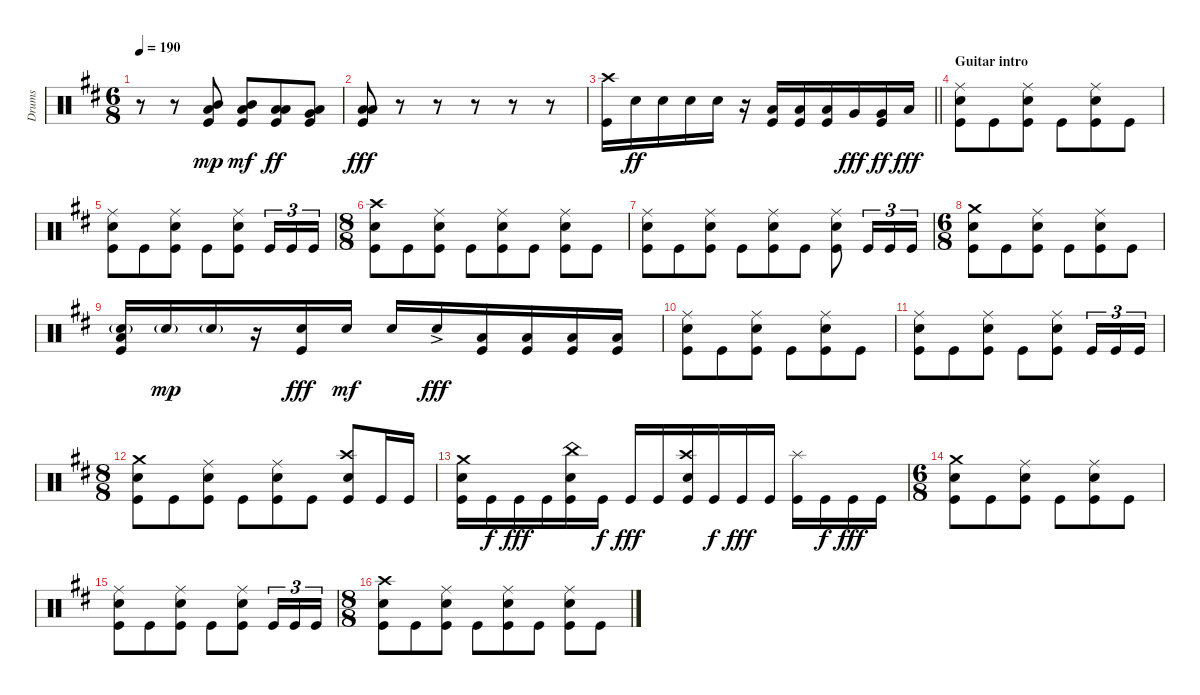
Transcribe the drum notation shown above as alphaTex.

\track ("Drums" "Drums") {instrument percussion}
\staff {score}
\articulation defaults
\ts (6 8)
\tempo 190
\clef neutral
\ks bminor
r.8{dy fff} r.8 ("Mid Tom (hit)" "Low Floor Tom (hit)" "Kick (hit)").8{dy mp} ("Mid Tom (hit)" "Low Floor Tom (hit)" "Kick (hit)").8{dy mf} ("Low Tom (hit)" "Low Floor Tom (hit)" "Kick (hit)").8{dy ff} ("Very Low Tom (hit)" "Low Floor Tom (hit)" "Kick (hit)").8 |
("Low Tom (hit)" "Low Floor Tom (hit)" "Kick (hit)").8{dy fff} r.8 r.8 r.8 r.8 r.8 |
\barLineRight lightlight
("Crash high (hit)" "Kick (hit)").16 "Snare (hit) 2".16{dy ff} "Snare (hit) 2".16 "Snare (hit) 2".16 "Snare (hit) 2".16 r.16 ("Low Tom (hit)" "Kick (hit)").16 ("Low Tom (hit)" "Kick (hit)").16 ("Low Tom (hit)" "Kick (hit)").16 "Very Low Tom (hit)".16{dy fff} ("Very Low Tom (hit)" "Kick (hit)").16{dy ff} "Low Floor Tom (hit)".16{dy fff} |
\section ("" "Guitar intro")
("Ride (middle)" "Snare (hit) 2" "Kick (hit)").8 "Kick (hit)".8 ("Ride (middle)" "Snare (hit) 2" "Kick (hit)").8 "Kick (hit)".8 ("Ride (middle)" "Snare (hit) 2" "Kick (hit)").8 "Kick (hit)".8 |
("Ride (middle)" "Snare (hit) 2" "Kick (hit)").8 "Kick (hit)".8 ("Ride (middle)" "Snare (hit) 2" "Kick (hit)").8 "Kick (hit)".8 ("Ride (middle)" "Snare (hit) 2" "Kick (hit)").8 "Kick (hit)".16{tu (3 2)} "Kick (hit)".16{tu (3 2)} "Kick (hit)".16{tu (3 2)} |
\ts (8 8)
("Crash high (hit)" "Snare (hit) 2" "Kick (hit)").8 "Kick (hit)".8 ("Ride (middle)" "Snare (hit) 2" "Kick (hit)").8 "Kick (hit)".8 ("Ride (middle)" "Snare (hit) 2" "Kick (hit)").8 "Kick (hit)".8 ("Ride (middle)" "Snare (hit) 2" "Kick (hit)").8 "Kick (hit)".8 |
("Ride (middle)" "Snare (hit) 2" "Kick (hit)").8 "Kick (hit)".8 ("Ride (middle)" "Snare (hit) 2" "Kick (hit)").8 "Kick (hit)".8 ("Ride (middle)" "Snare (hit) 2" "Kick (hit)").8 "Kick (hit)".8 ("Ride (middle)" "Snare (hit) 2" "Kick (hit)").8 "Kick (hit)".16{tu (3 2)} "Kick (hit)".16{tu (3 2)} "Kick (hit)".16{tu (3 2)} |
\ts (6 8)
("Crash medium (hit)" "Snare (hit) 2" "Kick (hit)").8 "Kick (hit)".8 ("Ride (middle)" "Snare (hit) 2" "Kick (hit)").8 "Kick (hit)".8 ("Ride (middle)" "Snare (hit) 2" "Kick (hit)").8 "Kick (hit)".8 |
("Low Floor Tom (hit)" "Snare (hit) 2"{g} "Kick (hit)").16 "Snare (hit) 2"{g}.16{dy mp} "Snare (hit) 2"{g}.16 r.16 ("Snare (hit) 2" "Kick (hit)").16{dy fff} "Snare (hit) 2".16{dy mf} "Snare (hit) 2".16 "Snare (hit) 2"{ac}.16{dy fff} ("Low Floor Tom (hit)" "Kick (hit)").16 ("Low Floor Tom (hit)" "Kick (hit)").16 ("Low Floor Tom (hit)" "Kick (hit)").16 ("Low Floor Tom (hit)" "Kick (hit)").16 |
("Ride (middle)" "Snare (hit) 2" "Kick (hit)").8 "Kick (hit)".8 ("Ride (middle)" "Snare (hit) 2" "Kick (hit)").8 "Kick (hit)".8 ("Ride (middle)" "Snare (hit) 2" "Kick (hit)").8 "Kick (hit)".8 |
("Ride (middle)" "Snare (hit) 2" "Kick (hit)").8 "Kick (hit)".8 ("Ride (middle)" "Snare (hit) 2" "Kick (hit)").8 "Kick (hit)".8 ("Ride (middle)" "Snare (hit) 2" "Kick (hit)").8 "Kick (hit)".16{tu (3 2)} "Kick (hit)".16{tu (3 2)} "Kick (hit)".16{tu (3 2)} |
\ts (8 8)
("Crash medium (hit)" "Snare (hit) 2" "Kick (hit)").8 "Kick (hit)".8 ("Ride (middle)" "Snare (hit) 2" "Kick (hit)").8 "Kick (hit)".8 ("Ride (middle)" "Snare (hit) 2" "Kick (hit)").8 "Kick (hit)".8 ("Crash high (hit)" "Snare (hit) 2" "Kick (hit)").8 "Kick (hit)".16 "Kick (hit)".16 |
("Crash medium (hit)" "Snare (hit) 2" "Kick (hit)").16 "Kick (hit)".16{dy f} "Kick (hit)".16{dy fff} "Kick (hit)".16 ("China (hit)" "Snare (hit) 2" "Kick (hit)").16 "Kick (hit)".16{dy f} "Kick (hit)".16{dy fff} "Kick (hit)".16 ("Crash high (hit)" "Snare (hit) 2" "Kick (hit)").16 "Kick (hit)".16{dy f} "Kick (hit)".16{dy fff} "Kick (hit)".16 ("Splash (hit)" "Kick (hit)").16 "Kick (hit)".16{dy f} "Kick (hit)".16{dy fff} "Kick (hit)".16 |
\ts (6 8)
("Crash medium (hit)" "Snare (hit) 2" "Kick (hit)").8 "Kick (hit)".8 ("Ride (middle)" "Snare (hit) 2" "Kick (hit)").8 "Kick (hit)".8 ("Ride (middle)" "Snare (hit) 2" "Kick (hit)").8 "Kick (hit)".8 |
("Ride (middle)" "Snare (hit) 2" "Kick (hit)").8 "Kick (hit)".8 ("Ride (middle)" "Snare (hit) 2" "Kick (hit)").8 "Kick (hit)".8 ("Ride (middle)" "Snare (hit) 2" "Kick (hit)").8 "Kick (hit)".16{tu (3 2)} "Kick (hit)".16{tu (3 2)} "Kick (hit)".16{tu (3 2)} |
\ts (8 8)
("Crash high (hit)" "Snare (hit) 2" "Kick (hit)").8 "Kick (hit)".8 ("Ride (middle)" "Snare (hit) 2" "Kick (hit)").8 "Kick (hit)".8 ("Ride (middle)" "Snare (hit) 2" "Kick (hit)").8 "Kick (hit)".8 ("Ride (middle)" "Snare (hit) 2" "Kick (hit)").8 "Kick (hit)".8
